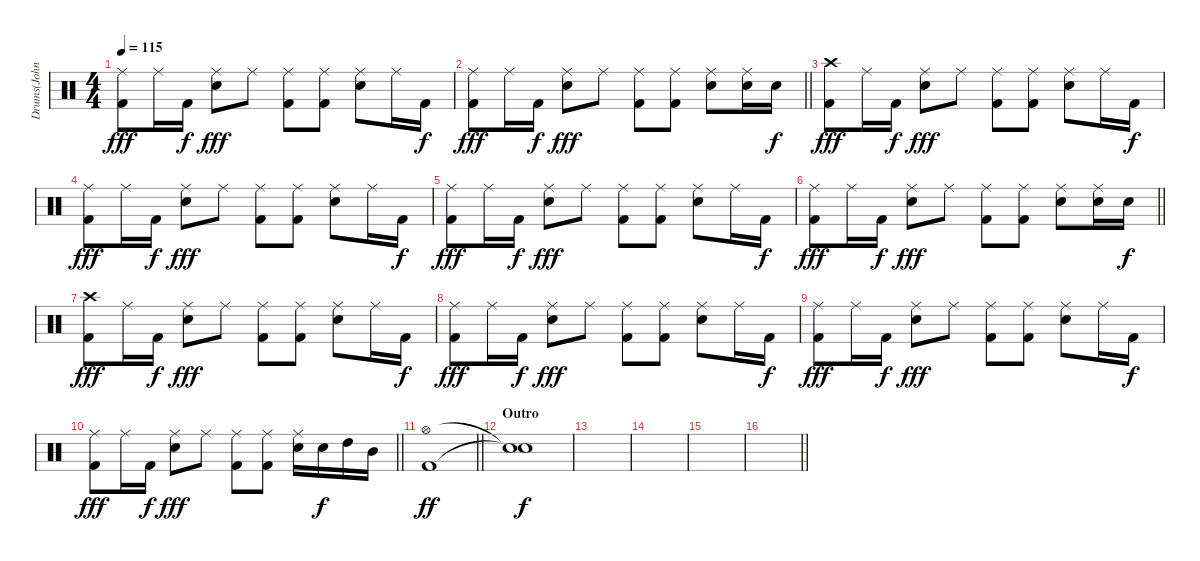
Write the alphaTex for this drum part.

\track ("Drums(John)" "Drums(John") {instrument percussion}
\staff {score}
\articulation defaults
\ts (4 4)
\tempo 115
\clef neutral
\ks c
("Ride (middle)" "Kick (hit) 2").8{dy fff} "Ride (middle)".16 "Kick (hit) 2".16{dy f} ("Ride (middle)" "Snare (hit) 2").8{dy fff} "Ride (middle)".8 ("Ride (middle)" "Kick (hit) 2").8 ("Ride (middle)" "Kick (hit) 2").8 ("Ride (middle)" "Snare (hit) 2").8 "Ride (middle)".16 "Kick (hit) 2".16{dy f} |
\barLineRight lightlight
("Ride (middle)" "Kick (hit) 2").8{dy fff} "Ride (middle)".16 "Kick (hit) 2".16{dy f} ("Ride (middle)" "Snare (hit) 2").8{dy fff} "Ride (middle)".8 ("Ride (middle)" "Kick (hit) 2").8 ("Ride (middle)" "Kick (hit) 2").8 ("Ride (middle)" "Snare (hit) 2").8 ("Ride (middle)" "Snare (hit) 2").16 "Snare (hit) 2".16{dy f} |
("Crash high (hit)" "Kick (hit) 2").8{dy fff} "Ride (middle)".16 "Kick (hit) 2".16{dy f} ("Ride (middle)" "Snare (hit) 2").8{dy fff} "Ride (middle)".8 ("Ride (middle)" "Kick (hit) 2").8 ("Ride (middle)" "Kick (hit) 2").8 ("Ride (middle)" "Snare (hit) 2").8 "Ride (middle)".16 "Kick (hit) 2".16{dy f} |
("Ride (middle)" "Kick (hit) 2").8{dy fff} "Ride (middle)".16 "Kick (hit) 2".16{dy f} ("Ride (middle)" "Snare (hit) 2").8{dy fff} "Ride (middle)".8 ("Ride (middle)" "Kick (hit) 2").8 ("Ride (middle)" "Kick (hit) 2").8 ("Ride (middle)" "Snare (hit) 2").8 "Ride (middle)".16 "Kick (hit) 2".16{dy f} |
("Ride (middle)" "Kick (hit) 2").8{dy fff} "Ride (middle)".16 "Kick (hit) 2".16{dy f} ("Ride (middle)" "Snare (hit) 2").8{dy fff} "Ride (middle)".8 ("Ride (middle)" "Kick (hit) 2").8 ("Ride (middle)" "Kick (hit) 2").8 ("Ride (middle)" "Snare (hit) 2").8 "Ride (middle)".16 "Kick (hit) 2".16{dy f} |
\barLineRight lightlight
("Ride (middle)" "Kick (hit) 2").8{dy fff} "Ride (middle)".16 "Kick (hit) 2".16{dy f} ("Ride (middle)" "Snare (hit) 2").8{dy fff} "Ride (middle)".8 ("Ride (middle)" "Kick (hit) 2").8 ("Ride (middle)" "Kick (hit) 2").8 ("Ride (middle)" "Snare (hit) 2").8 ("Ride (middle)" "Snare (hit) 2").16 "Snare (hit) 2".16{dy f} |
("Crash high (hit)" "Kick (hit) 2").8{dy fff} "Ride (middle)".16 "Kick (hit) 2".16{dy f} ("Ride (middle)" "Snare (hit) 2").8{dy fff} "Ride (middle)".8 ("Ride (middle)" "Kick (hit) 2").8 ("Ride (middle)" "Kick (hit) 2").8 ("Ride (middle)" "Snare (hit) 2").8 "Ride (middle)".16 "Kick (hit) 2".16{dy f} |
("Ride (middle)" "Kick (hit) 2").8{dy fff} "Ride (middle)".16 "Kick (hit) 2".16{dy f} ("Ride (middle)" "Snare (hit) 2").8{dy fff} "Ride (middle)".8 ("Ride (middle)" "Kick (hit) 2").8 ("Ride (middle)" "Kick (hit) 2").8 ("Ride (middle)" "Snare (hit) 2").8 "Ride (middle)".16 "Kick (hit) 2".16{dy f} |
("Ride (middle)" "Kick (hit) 2").8{dy fff} "Ride (middle)".16 "Kick (hit) 2".16{dy f} ("Ride (middle)" "Snare (hit) 2").8{dy fff} "Ride (middle)".8 ("Ride (middle)" "Kick (hit) 2").8 ("Ride (middle)" "Kick (hit) 2").8 ("Ride (middle)" "Snare (hit) 2").8 "Ride (middle)".16 "Kick (hit) 2".16{dy f} |
\barLineRight lightlight
("Ride (middle)" "Kick (hit) 2").8{dy fff} "Ride (middle)".16 "Kick (hit) 2".16{dy f} ("Ride (middle)" "Snare (hit) 2").8{dy fff} "Ride (middle)".8 ("Ride (middle)" "Kick (hit) 2").8 ("Ride (middle)" "Kick (hit) 2").8 ("Ride (middle)" "Snare (hit) 2").16 "Snare (hit) 2".16{dy f} "High Tom (hit)".16 "Mid Tom (hit)".16 |
\barLineRight lightlight
("Hi-Hat (open)" "Kick (hit) 2").1{dy ff} |
\section ("" "Outro")
("Snare (hit)"{t} "Snare (hit)"{t}).1{dy f} |
|
|
|
\barLineRight lightlight
